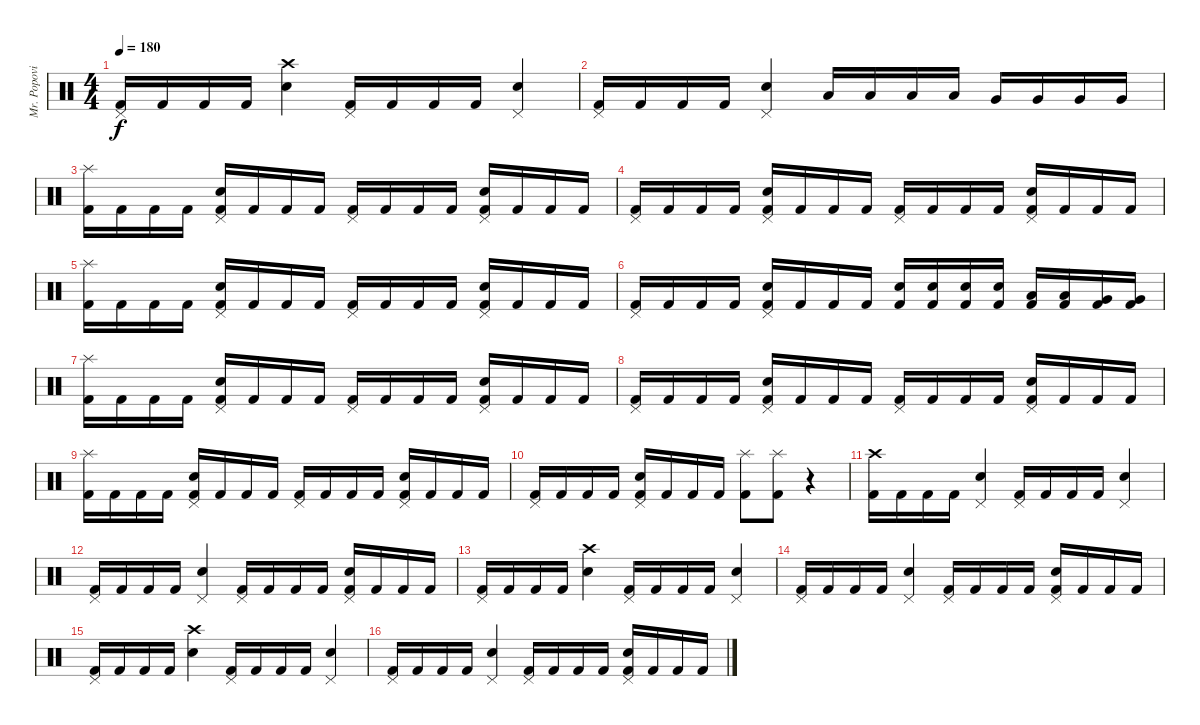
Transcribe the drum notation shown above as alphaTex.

\track ("Mr. Popovic" "Mr. Popovi") {instrument percussion}
\staff {score}
\articulation defaults
\ts (4 4)
\tempo 180
\clef neutral
\ks c
("Pedal Hi-Hat (hit)" "Kick (hit) 2").16{dy f} "Kick (hit) 2".16 "Kick (hit) 2".16 "Kick (hit) 2".16 ("Crash high (hit)" "Electric Snare (hit)").4 ("Pedal Hi-Hat (hit)" "Kick (hit) 2").16 "Kick (hit) 2".16 "Kick (hit) 2".16 "Kick (hit) 2".16 ("Pedal Hi-Hat (hit)" "Electric Snare (hit)").4 |
("Pedal Hi-Hat (hit)" "Kick (hit) 2").16 "Kick (hit) 2".16 "Kick (hit) 2".16 "Kick (hit) 2".16 ("Pedal Hi-Hat (hit)" "Electric Snare (hit)").4 "Low Tom (hit)".16 "Low Tom (hit)".16 "Low Tom (hit)".16 "Low Tom (hit)".16 "Very Low Tom (hit)".16 "Very Low Tom (hit)".16 "Very Low Tom (hit)".16 "Very Low Tom (hit)".16 |
("Splash (hit)" "Kick (hit) 2").16 "Kick (hit) 2".16 "Kick (hit) 2".16 "Kick (hit) 2".16 ("Pedal Hi-Hat (hit)" "Electric Snare (hit)" "Kick (hit) 2").16 "Kick (hit) 2".16 "Kick (hit) 2".16 "Kick (hit) 2".16 ("Pedal Hi-Hat (hit)" "Kick (hit) 2").16 "Kick (hit) 2".16 "Kick (hit) 2".16 "Kick (hit) 2".16 ("Pedal Hi-Hat (hit)" "Electric Snare (hit)" "Kick (hit) 2").16 "Kick (hit) 2".16 "Kick (hit) 2".16 "Kick (hit) 2".16 |
("Pedal Hi-Hat (hit)" "Kick (hit) 2").16 "Kick (hit) 2".16 "Kick (hit) 2".16 "Kick (hit) 2".16 ("Pedal Hi-Hat (hit)" "Electric Snare (hit)" "Kick (hit) 2").16 "Kick (hit) 2".16 "Kick (hit) 2".16 "Kick (hit) 2".16 ("Pedal Hi-Hat (hit)" "Kick (hit) 2").16 "Kick (hit) 2".16 "Kick (hit) 2".16 "Kick (hit) 2".16 ("Pedal Hi-Hat (hit)" "Electric Snare (hit)" "Kick (hit) 2").16 "Kick (hit) 2".16 "Kick (hit) 2".16 "Kick (hit) 2".16 |
("Splash (hit)" "Kick (hit) 2").16 "Kick (hit) 2".16 "Kick (hit) 2".16 "Kick (hit) 2".16 ("Pedal Hi-Hat (hit)" "Electric Snare (hit)" "Kick (hit) 2").16 "Kick (hit) 2".16 "Kick (hit) 2".16 "Kick (hit) 2".16 ("Pedal Hi-Hat (hit)" "Kick (hit) 2").16 "Kick (hit) 2".16 "Kick (hit) 2".16 "Kick (hit) 2".16 ("Pedal Hi-Hat (hit)" "Electric Snare (hit)" "Kick (hit) 2").16 "Kick (hit) 2".16 "Kick (hit) 2".16 "Kick (hit) 2".16 |
("Pedal Hi-Hat (hit)" "Kick (hit) 2").16 "Kick (hit) 2".16 "Kick (hit) 2".16 "Kick (hit) 2".16 ("Pedal Hi-Hat (hit)" "Electric Snare (hit)" "Kick (hit) 2").16 "Kick (hit) 2".16 "Kick (hit) 2".16 "Kick (hit) 2".16 ("Electric Snare (hit)" "Kick (hit) 2").16 ("Electric Snare (hit)" "Kick (hit) 2").16 ("Electric Snare (hit)" "Kick (hit) 2").16 ("Electric Snare (hit)" "Kick (hit) 2").16 ("Low Tom (hit)" "Kick (hit) 2").16 ("Low Tom (hit)" "Kick (hit) 2").16 ("Very Low Tom (hit)" "Kick (hit) 2").16 ("Very Low Tom (hit)" "Kick (hit) 2").16 |
("Splash (hit)" "Kick (hit) 2").16 "Kick (hit) 2".16 "Kick (hit) 2".16 "Kick (hit) 2".16 ("Pedal Hi-Hat (hit)" "Electric Snare (hit)" "Kick (hit) 2").16 "Kick (hit) 2".16 "Kick (hit) 2".16 "Kick (hit) 2".16 ("Pedal Hi-Hat (hit)" "Kick (hit) 2").16 "Kick (hit) 2".16 "Kick (hit) 2".16 "Kick (hit) 2".16 ("Pedal Hi-Hat (hit)" "Electric Snare (hit)" "Kick (hit) 2").16 "Kick (hit) 2".16 "Kick (hit) 2".16 "Kick (hit) 2".16 |
("Pedal Hi-Hat (hit)" "Kick (hit) 2").16 "Kick (hit) 2".16 "Kick (hit) 2".16 "Kick (hit) 2".16 ("Pedal Hi-Hat (hit)" "Electric Snare (hit)" "Kick (hit) 2").16 "Kick (hit) 2".16 "Kick (hit) 2".16 "Kick (hit) 2".16 ("Pedal Hi-Hat (hit)" "Kick (hit) 2").16 "Kick (hit) 2".16 "Kick (hit) 2".16 "Kick (hit) 2".16 ("Pedal Hi-Hat (hit)" "Electric Snare (hit)" "Kick (hit) 2").16 "Kick (hit) 2".16 "Kick (hit) 2".16 "Kick (hit) 2".16 |
("Splash (hit)" "Kick (hit) 2").16 "Kick (hit) 2".16 "Kick (hit) 2".16 "Kick (hit) 2".16 ("Pedal Hi-Hat (hit)" "Electric Snare (hit)" "Kick (hit) 2").16 "Kick (hit) 2".16 "Kick (hit) 2".16 "Kick (hit) 2".16 ("Pedal Hi-Hat (hit)" "Kick (hit) 2").16 "Kick (hit) 2".16 "Kick (hit) 2".16 "Kick (hit) 2".16 ("Pedal Hi-Hat (hit)" "Electric Snare (hit)" "Kick (hit) 2").16 "Kick (hit) 2".16 "Kick (hit) 2".16 "Kick (hit) 2".16 |
("Pedal Hi-Hat (hit)" "Kick (hit) 2").16 "Kick (hit) 2".16 "Kick (hit) 2".16 "Kick (hit) 2".16 ("Pedal Hi-Hat (hit)" "Electric Snare (hit)" "Kick (hit) 2").16 "Kick (hit) 2".16 "Kick (hit) 2".16 "Kick (hit) 2".16 ("Splash (hit)" "Kick (hit) 2").8 ("Splash (hit)" "Kick (hit) 2").8 r.4 |
("Crash high (hit)" "Kick (hit) 2").16 "Kick (hit) 2".16 "Kick (hit) 2".16 "Kick (hit) 2".16 ("Pedal Hi-Hat (hit)" "Electric Snare (hit)").4 ("Pedal Hi-Hat (hit)" "Kick (hit) 2").16 "Kick (hit) 2".16 "Kick (hit) 2".16 "Kick (hit) 2".16 ("Pedal Hi-Hat (hit)" "Electric Snare (hit)").4 |
("Pedal Hi-Hat (hit)" "Kick (hit) 2").16 "Kick (hit) 2".16 "Kick (hit) 2".16 "Kick (hit) 2".16 ("Pedal Hi-Hat (hit)" "Electric Snare (hit)").4 ("Pedal Hi-Hat (hit)" "Kick (hit) 2").16 "Kick (hit) 2".16 "Kick (hit) 2".16 "Kick (hit) 2".16 ("Pedal Hi-Hat (hit)" "Electric Snare (hit)" "Kick (hit) 2").16 "Kick (hit) 2".16 "Kick (hit) 2".16 "Kick (hit) 2".16 |
("Pedal Hi-Hat (hit)" "Kick (hit) 2").16 "Kick (hit) 2".16 "Kick (hit) 2".16 "Kick (hit) 2".16 ("Crash high (hit)" "Electric Snare (hit)").4 ("Pedal Hi-Hat (hit)" "Kick (hit) 2").16 "Kick (hit) 2".16 "Kick (hit) 2".16 "Kick (hit) 2".16 ("Pedal Hi-Hat (hit)" "Electric Snare (hit)").4 |
("Pedal Hi-Hat (hit)" "Kick (hit) 2").16 "Kick (hit) 2".16 "Kick (hit) 2".16 "Kick (hit) 2".16 ("Pedal Hi-Hat (hit)" "Electric Snare (hit)").4 ("Pedal Hi-Hat (hit)" "Kick (hit) 2").16 "Kick (hit) 2".16 "Kick (hit) 2".16 "Kick (hit) 2".16 ("Pedal Hi-Hat (hit)" "Electric Snare (hit)" "Kick (hit) 2").16 "Kick (hit) 2".16 "Kick (hit) 2".16 "Kick (hit) 2".16 |
("Pedal Hi-Hat (hit)" "Kick (hit) 2").16 "Kick (hit) 2".16 "Kick (hit) 2".16 "Kick (hit) 2".16 ("Crash high (hit)" "Electric Snare (hit)").4 ("Pedal Hi-Hat (hit)" "Kick (hit) 2").16 "Kick (hit) 2".16 "Kick (hit) 2".16 "Kick (hit) 2".16 ("Pedal Hi-Hat (hit)" "Electric Snare (hit)").4 |
("Pedal Hi-Hat (hit)" "Kick (hit) 2").16 "Kick (hit) 2".16 "Kick (hit) 2".16 "Kick (hit) 2".16 ("Pedal Hi-Hat (hit)" "Electric Snare (hit)").4 ("Pedal Hi-Hat (hit)" "Kick (hit) 2").16 "Kick (hit) 2".16 "Kick (hit) 2".16 "Kick (hit) 2".16 ("Pedal Hi-Hat (hit)" "Electric Snare (hit)" "Kick (hit) 2").16 "Kick (hit) 2".16 "Kick (hit) 2".16 "Kick (hit) 2".16
